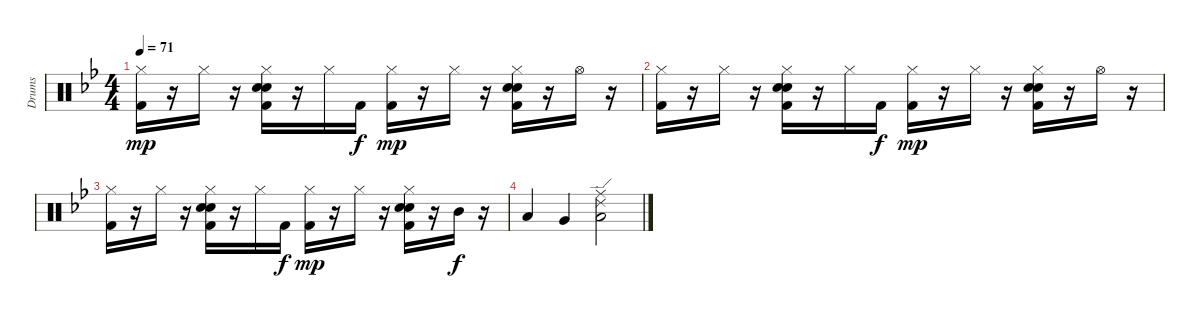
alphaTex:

\track ("Drums" "Drums") {instrument percussion}
\staff {score}
\articulation defaults
\ts (4 4)
\tempo 71
\clef neutral
\ks gminor
("Hi-Hat (closed)" "Kick (hit) 2").16{dy mp} r.16 "Hi-Hat (closed)".16 r.16 ("Hi-Hat (closed)" "Electric Snare (hit)" "Snare (hit) 2" "Kick (hit) 2").16 r.16 "Hi-Hat (closed)".16 "Kick (hit) 2".16{dy f} ("Hi-Hat (closed)" "Kick (hit) 2").16{dy mp} r.16 "Hi-Hat (closed)".16 r.16 ("Hi-Hat (closed)" "Electric Snare (hit)" "Snare (hit) 2" "Kick (hit) 2").16 r.16 "Hi-Hat (open)".16 r.16 |
("Hi-Hat (closed)" "Kick (hit) 2").16 r.16 "Hi-Hat (closed)".16 r.16 ("Hi-Hat (closed)" "Electric Snare (hit)" "Snare (hit) 2" "Kick (hit) 2").16 r.16 "Hi-Hat (closed)".16 "Kick (hit) 2".16{dy f} ("Hi-Hat (closed)" "Kick (hit) 2").16{dy mp} r.16 "Hi-Hat (closed)".16 r.16 ("Hi-Hat (closed)" "Electric Snare (hit)" "Snare (hit) 2" "Kick (hit) 2").16 r.16 "Hi-Hat (open)".16 r.16 |
("Hi-Hat (closed)" "Kick (hit) 2").16 r.16 "Hi-Hat (closed)".16 r.16 ("Hi-Hat (closed)" "Electric Snare (hit)" "Snare (hit) 2" "Kick (hit) 2").16 r.16 "Hi-Hat (closed)".16 "Kick (hit) 2".16{dy f} ("Hi-Hat (closed)" "Kick (hit) 2").16{dy mp} r.16 "Hi-Hat (closed)".16 r.16 ("Hi-Hat (closed)" "Electric Snare (hit)" "Snare (hit) 2" "Kick (hit) 2").16 r.16 "Mid Tom (hit)".16{dy f} r.16 |
"Low Tom (hit)".4 "Very Low Tom (hit)".4 ("Ride (middle)" "Low Floor Tom (hit)" "Ride (edge) 2").2
